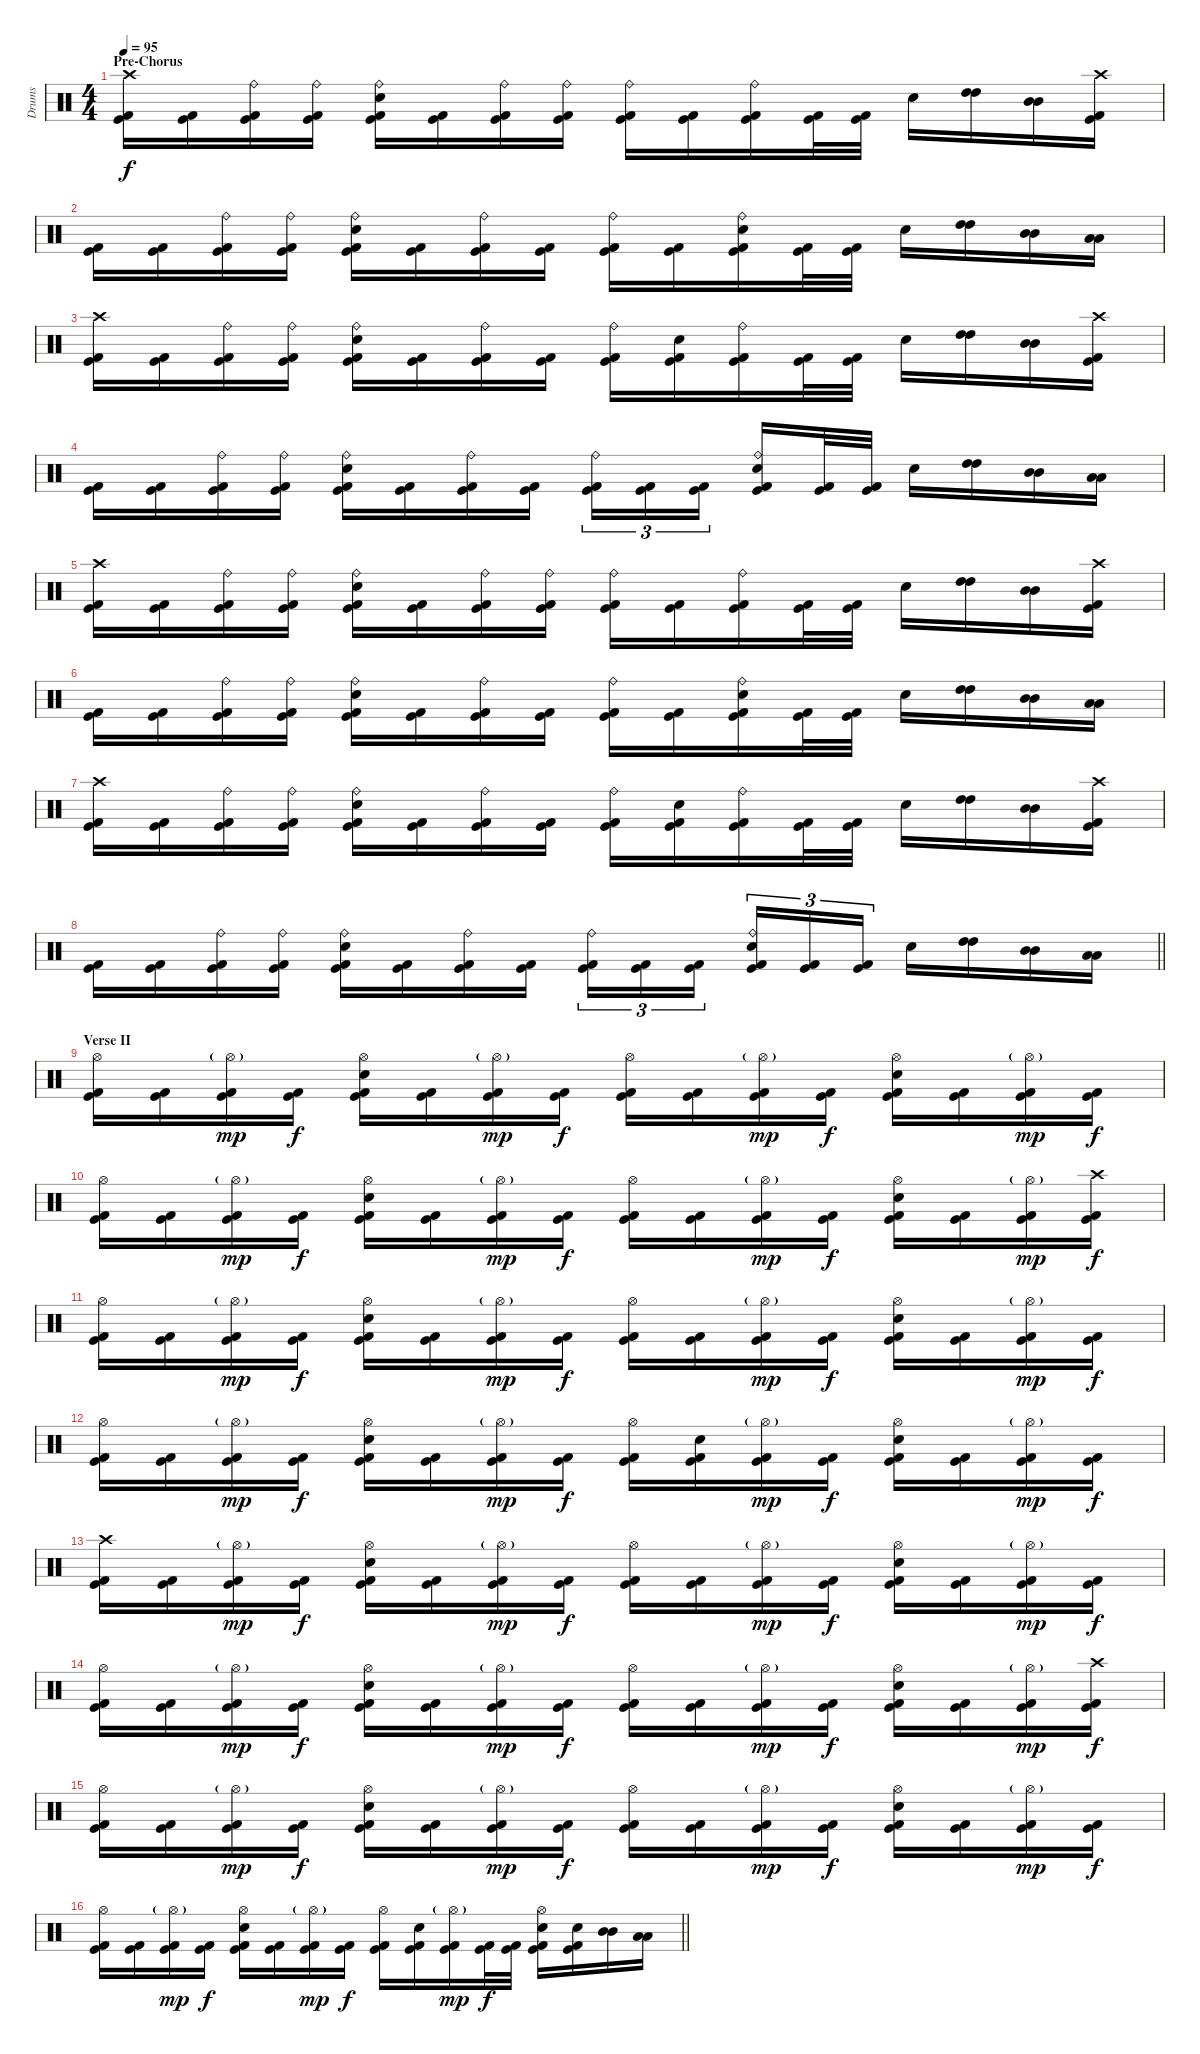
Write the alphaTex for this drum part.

\track ("Drums" "Drums") {instrument percussion}
\staff {score}
\articulation defaults
\ts (4 4)
\section ("" "Pre-Chorus")
\tempo 95
\clef neutral
\ks c
("Crash high (hit)" "Kick (hit) 2" "Kick (hit)").16{dy f} ("Kick (hit) 2" "Kick (hit)").16 ("Ride (bell)" "Kick (hit) 2" "Kick (hit)").16 ("Ride (bell)" "Kick (hit) 2" "Kick (hit)").16 ("Ride (bell)" "Snare (hit) 2" "Kick (hit) 2" "Kick (hit)").16 ("Kick (hit) 2" "Kick (hit)").16 ("Ride (bell)" "Kick (hit) 2" "Kick (hit)").16 ("Ride (bell)" "Kick (hit) 2" "Kick (hit)").16 ("Ride (bell)" "Kick (hit) 2" "Kick (hit)").16 ("Kick (hit) 2" "Kick (hit)").16 ("Ride (bell)" "Kick (hit) 2" "Kick (hit)").16 ("Kick (hit) 2" "Kick (hit)").32 ("Kick (hit) 2" "Kick (hit)").32 "Snare (hit) 2".16 ("High Tom (hit)" "High Tom (hit)").16 ("Mid Tom (hit)" "Mid Tom (hit)").16 ("Crash high (hit)" "Kick (hit) 2" "Kick (hit)").16 |
("Kick (hit) 2" "Kick (hit)").16 ("Kick (hit) 2" "Kick (hit)").16 ("Ride (bell)" "Kick (hit) 2" "Kick (hit)").16 ("Ride (bell)" "Kick (hit) 2" "Kick (hit)").16 ("Ride (bell)" "Snare (hit) 2" "Kick (hit) 2" "Kick (hit)").16 ("Kick (hit) 2" "Kick (hit)").16 ("Ride (bell)" "Kick (hit) 2" "Kick (hit)").16 ("Kick (hit) 2" "Kick (hit)").16 ("Ride (bell)" "Kick (hit) 2" "Kick (hit)").16 ("Kick (hit) 2" "Kick (hit)").16 ("Ride (bell)" "Snare (hit) 2" "Kick (hit) 2" "Kick (hit)").16 ("Kick (hit) 2" "Kick (hit)").32 ("Kick (hit) 2" "Kick (hit)").32 "Snare (hit) 2".16 ("High Tom (hit)" "High Tom (hit)").16 ("Mid Tom (hit)" "Mid Tom (hit)").16 ("Low Tom (hit)" "Low Tom (hit)").16 |
("Crash high (hit)" "Kick (hit) 2" "Kick (hit)").16 ("Kick (hit) 2" "Kick (hit)").16 ("Ride (bell)" "Kick (hit) 2" "Kick (hit)").16 ("Ride (bell)" "Kick (hit) 2" "Kick (hit)").16 ("Ride (bell)" "Snare (hit) 2" "Kick (hit) 2" "Kick (hit)").16 ("Kick (hit) 2" "Kick (hit)").16 ("Ride (bell)" "Kick (hit) 2" "Kick (hit)").16 ("Kick (hit) 2" "Kick (hit)").16 ("Ride (bell)" "Kick (hit) 2" "Kick (hit)").16 ("Snare (hit) 2" "Kick (hit) 2" "Kick (hit)").16 ("Ride (bell)" "Kick (hit) 2" "Kick (hit)").16 ("Kick (hit) 2" "Kick (hit)").32 ("Kick (hit) 2" "Kick (hit)").32 "Snare (hit) 2".16 ("High Tom (hit)" "High Tom (hit)").16 ("Mid Tom (hit)" "Mid Tom (hit)").16 ("Crash high (hit)" "Kick (hit) 2" "Kick (hit)").16 |
("Kick (hit) 2" "Kick (hit)").16 ("Kick (hit) 2" "Kick (hit)").16 ("Ride (bell)" "Kick (hit) 2" "Kick (hit)").16 ("Ride (bell)" "Kick (hit) 2" "Kick (hit)").16 ("Ride (bell)" "Snare (hit) 2" "Kick (hit) 2" "Kick (hit)").16 ("Kick (hit) 2" "Kick (hit)").16 ("Ride (bell)" "Kick (hit) 2" "Kick (hit)").16 ("Kick (hit) 2" "Kick (hit)").16 ("Ride (bell)" "Kick (hit) 2" "Kick (hit)").16{tu (3 2)} ("Kick (hit) 2" "Kick (hit)").16{tu (3 2)} ("Kick (hit) 2" "Kick (hit)").16{tu (3 2) beam splitsecondary} ("Ride (bell)" "Snare (hit) 2" "Kick (hit) 2" "Kick (hit)").16 ("Kick (hit) 2" "Kick (hit)").32 ("Kick (hit) 2" "Kick (hit)").32 "Snare (hit) 2".16 ("High Tom (hit)" "High Tom (hit)").16 ("Mid Tom (hit)" "Mid Tom (hit)").16 ("Low Tom (hit)" "Low Tom (hit)").16 |
("Crash high (hit)" "Kick (hit) 2" "Kick (hit)").16 ("Kick (hit) 2" "Kick (hit)").16 ("Ride (bell)" "Kick (hit) 2" "Kick (hit)").16 ("Ride (bell)" "Kick (hit) 2" "Kick (hit)").16 ("Ride (bell)" "Snare (hit) 2" "Kick (hit) 2" "Kick (hit)").16 ("Kick (hit) 2" "Kick (hit)").16 ("Ride (bell)" "Kick (hit) 2" "Kick (hit)").16 ("Ride (bell)" "Kick (hit) 2" "Kick (hit)").16 ("Ride (bell)" "Kick (hit) 2" "Kick (hit)").16 ("Kick (hit) 2" "Kick (hit)").16 ("Ride (bell)" "Kick (hit) 2" "Kick (hit)").16 ("Kick (hit) 2" "Kick (hit)").32 ("Kick (hit) 2" "Kick (hit)").32 "Snare (hit) 2".16 ("High Tom (hit)" "High Tom (hit)").16 ("Mid Tom (hit)" "Mid Tom (hit)").16 ("Crash high (hit)" "Kick (hit) 2" "Kick (hit)").16 |
("Kick (hit) 2" "Kick (hit)").16 ("Kick (hit) 2" "Kick (hit)").16 ("Ride (bell)" "Kick (hit) 2" "Kick (hit)").16 ("Ride (bell)" "Kick (hit) 2" "Kick (hit)").16 ("Ride (bell)" "Snare (hit) 2" "Kick (hit) 2" "Kick (hit)").16 ("Kick (hit) 2" "Kick (hit)").16 ("Ride (bell)" "Kick (hit) 2" "Kick (hit)").16 ("Kick (hit) 2" "Kick (hit)").16 ("Ride (bell)" "Kick (hit) 2" "Kick (hit)").16 ("Kick (hit) 2" "Kick (hit)").16 ("Ride (bell)" "Snare (hit) 2" "Kick (hit) 2" "Kick (hit)").16 ("Kick (hit) 2" "Kick (hit)").32 ("Kick (hit) 2" "Kick (hit)").32 "Snare (hit) 2".16 ("High Tom (hit)" "High Tom (hit)").16 ("Mid Tom (hit)" "Mid Tom (hit)").16 ("Low Tom (hit)" "Low Tom (hit)").16 |
("Crash high (hit)" "Kick (hit) 2" "Kick (hit)").16 ("Kick (hit) 2" "Kick (hit)").16 ("Ride (bell)" "Kick (hit) 2" "Kick (hit)").16 ("Ride (bell)" "Kick (hit) 2" "Kick (hit)").16 ("Ride (bell)" "Snare (hit) 2" "Kick (hit) 2" "Kick (hit)").16 ("Kick (hit) 2" "Kick (hit)").16 ("Ride (bell)" "Kick (hit) 2" "Kick (hit)").16 ("Kick (hit) 2" "Kick (hit)").16 ("Ride (bell)" "Kick (hit) 2" "Kick (hit)").16 ("Snare (hit) 2" "Kick (hit) 2" "Kick (hit)").16 ("Ride (bell)" "Kick (hit) 2" "Kick (hit)").16 ("Kick (hit) 2" "Kick (hit)").32 ("Kick (hit) 2" "Kick (hit)").32 "Snare (hit) 2".16 ("High Tom (hit)" "High Tom (hit)").16 ("Mid Tom (hit)" "Mid Tom (hit)").16 ("Crash high (hit)" "Kick (hit) 2" "Kick (hit)").16 |
\barLineRight lightlight
("Kick (hit) 2" "Kick (hit)").16 ("Kick (hit) 2" "Kick (hit)").16 ("Ride (bell)" "Kick (hit) 2" "Kick (hit)").16 ("Ride (bell)" "Kick (hit) 2" "Kick (hit)").16 ("Ride (bell)" "Snare (hit) 2" "Kick (hit) 2" "Kick (hit)").16 ("Kick (hit) 2" "Kick (hit)").16 ("Ride (bell)" "Kick (hit) 2" "Kick (hit)").16 ("Kick (hit) 2" "Kick (hit)").16 ("Ride (bell)" "Kick (hit) 2" "Kick (hit)").16{tu (3 2)} ("Kick (hit) 2" "Kick (hit)").16{tu (3 2)} ("Kick (hit) 2" "Kick (hit)").16{tu (3 2) beam splitsecondary} ("Ride (bell)" "Snare (hit) 2" "Kick (hit) 2" "Kick (hit)").16{tu (3 2)} ("Kick (hit) 2" "Kick (hit)").16{tu (3 2)} ("Kick (hit) 2" "Kick (hit)").16{tu (3 2)} "Snare (hit) 2".16 ("High Tom (hit)" "High Tom (hit)").16 ("Mid Tom (hit)" "Mid Tom (hit)").16 ("Low Tom (hit)" "Low Tom (hit)").16 |
\section ("" "Verse II")
("Hi-Hat (open)" "Kick (hit) 2" "Kick (hit)").16 ("Kick (hit) 2" "Kick (hit)").16 ("Hi-Hat (open)"{g} "Kick (hit) 2" "Kick (hit)").16{dy mp} ("Kick (hit) 2" "Kick (hit)").16{dy f} ("Hi-Hat (open)" "Snare (hit) 2" "Kick (hit) 2" "Kick (hit)").16 ("Kick (hit) 2" "Kick (hit)").16 ("Hi-Hat (open)"{g} "Kick (hit) 2" "Kick (hit)").16{dy mp} ("Kick (hit) 2" "Kick (hit)").16{dy f} ("Hi-Hat (open)" "Kick (hit) 2" "Kick (hit)").16 ("Kick (hit) 2" "Kick (hit)").16 ("Hi-Hat (open)"{g} "Kick (hit) 2" "Kick (hit)").16{dy mp} ("Kick (hit) 2" "Kick (hit)").16{dy f} ("Hi-Hat (open)" "Snare (hit) 2" "Kick (hit) 2" "Kick (hit)").16 ("Kick (hit) 2" "Kick (hit)").16 ("Hi-Hat (open)"{g} "Kick (hit) 2" "Kick (hit)").16{dy mp} ("Kick (hit) 2" "Kick (hit)").16{dy f} |
("Hi-Hat (open)" "Kick (hit) 2" "Kick (hit)").16 ("Kick (hit) 2" "Kick (hit)").16 ("Hi-Hat (open)"{g} "Kick (hit) 2" "Kick (hit)").16{dy mp} ("Kick (hit) 2" "Kick (hit)").16{dy f} ("Hi-Hat (open)" "Snare (hit) 2" "Kick (hit) 2" "Kick (hit)").16 ("Kick (hit) 2" "Kick (hit)").16 ("Hi-Hat (open)"{g} "Kick (hit) 2" "Kick (hit)").16{dy mp} ("Kick (hit) 2" "Kick (hit)").16{dy f} ("Hi-Hat (open)" "Kick (hit) 2" "Kick (hit)").16 ("Kick (hit) 2" "Kick (hit)").16 ("Hi-Hat (open)"{g} "Kick (hit) 2" "Kick (hit)").16{dy mp} ("Kick (hit) 2" "Kick (hit)").16{dy f} ("Hi-Hat (open)" "Snare (hit) 2" "Kick (hit) 2" "Kick (hit)").16 ("Kick (hit) 2" "Kick (hit)").16 ("Hi-Hat (open)"{g} "Kick (hit) 2" "Kick (hit)").16{dy mp} ("Crash high (hit)" "Kick (hit) 2" "Kick (hit)").16{dy f} |
("Hi-Hat (open)" "Kick (hit) 2" "Kick (hit)").16 ("Kick (hit) 2" "Kick (hit)").16 ("Hi-Hat (open)"{g} "Kick (hit) 2" "Kick (hit)").16{dy mp} ("Kick (hit) 2" "Kick (hit)").16{dy f} ("Hi-Hat (open)" "Snare (hit) 2" "Kick (hit) 2" "Kick (hit)").16 ("Kick (hit) 2" "Kick (hit)").16 ("Hi-Hat (open)"{g} "Kick (hit) 2" "Kick (hit)").16{dy mp} ("Kick (hit) 2" "Kick (hit)").16{dy f} ("Hi-Hat (open)" "Kick (hit) 2" "Kick (hit)").16 ("Kick (hit) 2" "Kick (hit)").16 ("Hi-Hat (open)"{g} "Kick (hit) 2" "Kick (hit)").16{dy mp} ("Kick (hit) 2" "Kick (hit)").16{dy f} ("Hi-Hat (open)" "Snare (hit) 2" "Kick (hit) 2" "Kick (hit)").16 ("Kick (hit) 2" "Kick (hit)").16 ("Hi-Hat (open)"{g} "Kick (hit) 2" "Kick (hit)").16{dy mp} ("Kick (hit) 2" "Kick (hit)").16{dy f} |
("Hi-Hat (open)" "Kick (hit) 2" "Kick (hit)").16 ("Kick (hit) 2" "Kick (hit)").16 ("Hi-Hat (open)"{g} "Kick (hit) 2" "Kick (hit)").16{dy mp} ("Kick (hit) 2" "Kick (hit)").16{dy f} ("Hi-Hat (open)" "Snare (hit) 2" "Kick (hit) 2" "Kick (hit)").16 ("Kick (hit) 2" "Kick (hit)").16 ("Hi-Hat (open)"{g} "Kick (hit) 2" "Kick (hit)").16{dy mp} ("Kick (hit) 2" "Kick (hit)").16{dy f} ("Hi-Hat (open)" "Kick (hit) 2" "Kick (hit)").16 ("Snare (hit) 2" "Kick (hit) 2" "Kick (hit)").16 ("Hi-Hat (open)"{g} "Kick (hit) 2" "Kick (hit)").16{dy mp} ("Kick (hit) 2" "Kick (hit)").16{dy f} ("Hi-Hat (open)" "Snare (hit) 2" "Kick (hit) 2" "Kick (hit)").16 ("Kick (hit) 2" "Kick (hit)").16 ("Hi-Hat (open)"{g} "Kick (hit) 2" "Kick (hit)").16{dy mp} ("Kick (hit) 2" "Kick (hit)").16{dy f} |
("Crash high (hit)" "Kick (hit) 2" "Kick (hit)").16 ("Kick (hit) 2" "Kick (hit)").16 ("Hi-Hat (open)"{g} "Kick (hit) 2" "Kick (hit)").16{dy mp} ("Kick (hit) 2" "Kick (hit)").16{dy f} ("Hi-Hat (open)" "Snare (hit) 2" "Kick (hit) 2" "Kick (hit)").16 ("Kick (hit) 2" "Kick (hit)").16 ("Hi-Hat (open)"{g} "Kick (hit) 2" "Kick (hit)").16{dy mp} ("Kick (hit) 2" "Kick (hit)").16{dy f} ("Hi-Hat (open)" "Kick (hit) 2" "Kick (hit)").16 ("Kick (hit) 2" "Kick (hit)").16 ("Hi-Hat (open)"{g} "Kick (hit) 2" "Kick (hit)").16{dy mp} ("Kick (hit) 2" "Kick (hit)").16{dy f} ("Hi-Hat (open)" "Snare (hit) 2" "Kick (hit) 2" "Kick (hit)").16 ("Kick (hit) 2" "Kick (hit)").16 ("Hi-Hat (open)"{g} "Kick (hit) 2" "Kick (hit)").16{dy mp} ("Kick (hit) 2" "Kick (hit)").16{dy f} |
("Hi-Hat (open)" "Kick (hit) 2" "Kick (hit)").16 ("Kick (hit) 2" "Kick (hit)").16 ("Hi-Hat (open)"{g} "Kick (hit) 2" "Kick (hit)").16{dy mp} ("Kick (hit) 2" "Kick (hit)").16{dy f} ("Hi-Hat (open)" "Snare (hit) 2" "Kick (hit) 2" "Kick (hit)").16 ("Kick (hit) 2" "Kick (hit)").16 ("Hi-Hat (open)"{g} "Kick (hit) 2" "Kick (hit)").16{dy mp} ("Kick (hit) 2" "Kick (hit)").16{dy f} ("Hi-Hat (open)" "Kick (hit) 2" "Kick (hit)").16 ("Kick (hit) 2" "Kick (hit)").16 ("Hi-Hat (open)"{g} "Kick (hit) 2" "Kick (hit)").16{dy mp} ("Kick (hit) 2" "Kick (hit)").16{dy f} ("Hi-Hat (open)" "Snare (hit) 2" "Kick (hit) 2" "Kick (hit)").16 ("Kick (hit) 2" "Kick (hit)").16 ("Hi-Hat (open)"{g} "Kick (hit) 2" "Kick (hit)").16{dy mp} ("Crash high (hit)" "Kick (hit) 2" "Kick (hit)").16{dy f} |
("Hi-Hat (open)" "Kick (hit) 2" "Kick (hit)").16 ("Kick (hit) 2" "Kick (hit)").16 ("Hi-Hat (open)"{g} "Kick (hit) 2" "Kick (hit)").16{dy mp} ("Kick (hit) 2" "Kick (hit)").16{dy f} ("Hi-Hat (open)" "Snare (hit) 2" "Kick (hit) 2" "Kick (hit)").16 ("Kick (hit) 2" "Kick (hit)").16 ("Hi-Hat (open)"{g} "Kick (hit) 2" "Kick (hit)").16{dy mp} ("Kick (hit) 2" "Kick (hit)").16{dy f} ("Hi-Hat (open)" "Kick (hit) 2" "Kick (hit)").16 ("Kick (hit) 2" "Kick (hit)").16 ("Hi-Hat (open)"{g} "Kick (hit) 2" "Kick (hit)").16{dy mp} ("Kick (hit) 2" "Kick (hit)").16{dy f} ("Hi-Hat (open)" "Snare (hit) 2" "Kick (hit) 2" "Kick (hit)").16 ("Kick (hit) 2" "Kick (hit)").16 ("Hi-Hat (open)"{g} "Kick (hit) 2" "Kick (hit)").16{dy mp} ("Kick (hit) 2" "Kick (hit)").16{dy f} |
\barLineRight lightlight
("Hi-Hat (open)" "Kick (hit) 2" "Kick (hit)").16 ("Kick (hit) 2" "Kick (hit)").16 ("Hi-Hat (open)"{g} "Kick (hit) 2" "Kick (hit)").16{dy mp} ("Kick (hit) 2" "Kick (hit)").16{dy f} ("Hi-Hat (open)" "Snare (hit) 2" "Kick (hit) 2" "Kick (hit)").16 ("Kick (hit) 2" "Kick (hit)").16 ("Hi-Hat (open)"{g} "Kick (hit) 2" "Kick (hit)").16{dy mp} ("Kick (hit) 2" "Kick (hit)").16{dy f} ("Hi-Hat (open)" "Kick (hit) 2" "Kick (hit)").16 ("Snare (hit) 2" "Kick (hit) 2" "Kick (hit)").16 ("Hi-Hat (open)"{g} "Kick (hit) 2" "Kick (hit)").16{dy mp} ("Kick (hit) 2" "Kick (hit)").32{dy f} ("Kick (hit) 2" "Kick (hit)").32 ("Hi-Hat (open)" "Snare (hit) 2" "Kick (hit) 2" "Kick (hit)").16 ("Snare (hit) 2" "Kick (hit) 2" "Kick (hit)").16 ("Mid Tom (hit)" "Mid Tom (hit)").16 ("Low Tom (hit)" "Low Tom (hit)").16
